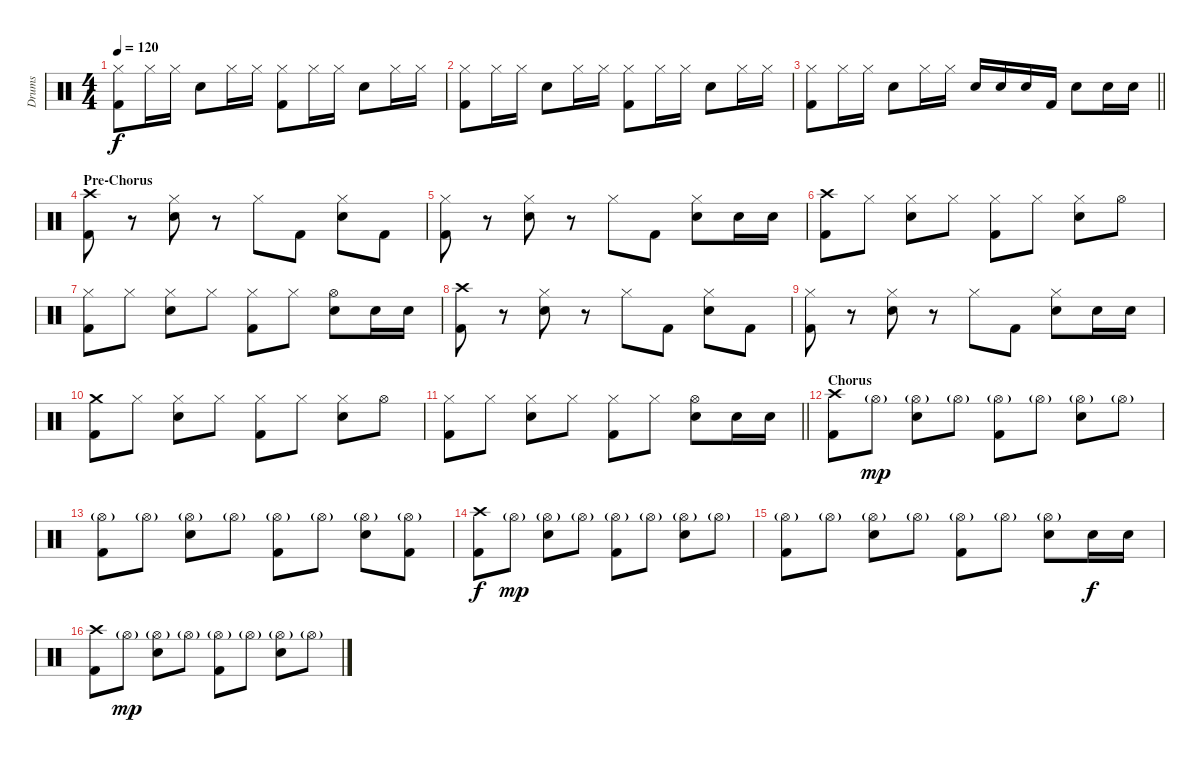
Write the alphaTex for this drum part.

\track ("Drums" "Drums") {instrument percussion}
\staff {score}
\articulation defaults
\ts (4 4)
\tempo 120
\clef neutral
\ks c
("Hi-Hat (closed)" "Kick (hit) 2").8{dy f} "Hi-Hat (closed)".16 "Hi-Hat (closed)".16 "Electric Snare (hit)".8 "Hi-Hat (closed)".16 "Hi-Hat (closed)".16 ("Hi-Hat (closed)" "Kick (hit) 2").8 "Hi-Hat (closed)".16 "Hi-Hat (closed)".16 "Electric Snare (hit)".8 "Hi-Hat (closed)".16 "Hi-Hat (closed)".16 |
("Hi-Hat (closed)" "Kick (hit) 2").8 "Hi-Hat (closed)".16 "Hi-Hat (closed)".16 "Electric Snare (hit)".8 "Hi-Hat (closed)".16 "Hi-Hat (closed)".16 ("Hi-Hat (closed)" "Kick (hit) 2").8 "Hi-Hat (closed)".16 "Hi-Hat (closed)".16 "Electric Snare (hit)".8 "Hi-Hat (closed)".16 "Hi-Hat (closed)".16 |
\barLineRight lightlight
("Hi-Hat (closed)" "Kick (hit) 2").8 "Hi-Hat (closed)".16 "Hi-Hat (closed)".16 "Electric Snare (hit)".8 "Hi-Hat (closed)".16 "Hi-Hat (closed)".16 "Electric Snare (hit)".16 "Electric Snare (hit)".16 "Electric Snare (hit)".16 "Kick (hit) 2".16 "Electric Snare (hit)".8 "Electric Snare (hit)".16 "Electric Snare (hit)".16 |
\section ("" "Pre-Chorus")
("Crash high (hit)" "Kick (hit) 2").8 r.8 ("Hi-Hat (closed)" "Electric Snare (hit)").8 r.8 "Hi-Hat (closed)".8 "Kick (hit) 2".8 ("Hi-Hat (closed)" "Electric Snare (hit)").8 "Kick (hit) 2".8 |
("Hi-Hat (closed)" "Kick (hit) 2").8 r.8 ("Hi-Hat (closed)" "Electric Snare (hit)").8 r.8 "Hi-Hat (closed)".8 "Kick (hit) 2".8 ("Hi-Hat (closed)" "Electric Snare (hit)").8 "Electric Snare (hit)".16 "Electric Snare (hit)".16 |
("Crash high (hit)" "Kick (hit) 2").8 "Hi-Hat (closed)".8 ("Hi-Hat (closed)" "Electric Snare (hit)").8 "Hi-Hat (closed)".8 ("Hi-Hat (closed)" "Kick (hit) 2").8 "Hi-Hat (closed)".8 ("Hi-Hat (closed)" "Electric Snare (hit)").8 "Hi-Hat (open)".8 |
("Hi-Hat (closed)" "Kick (hit) 2").8 "Hi-Hat (closed)".8 ("Hi-Hat (closed)" "Electric Snare (hit)").8 "Hi-Hat (closed)".8 ("Hi-Hat (closed)" "Kick (hit) 2").8 "Hi-Hat (closed)".8 ("Hi-Hat (open)" "Electric Snare (hit)").8 "Electric Snare (hit)".16 "Electric Snare (hit)".16 |
("Crash high (hit)" "Kick (hit) 2").8 r.8 ("Hi-Hat (closed)" "Electric Snare (hit)").8 r.8 "Hi-Hat (closed)".8 "Kick (hit) 2".8 ("Hi-Hat (closed)" "Electric Snare (hit)").8 "Kick (hit) 2".8 |
("Hi-Hat (closed)" "Kick (hit) 2").8 r.8 ("Hi-Hat (closed)" "Electric Snare (hit)").8 r.8 "Hi-Hat (closed)".8 "Kick (hit) 2".8 ("Hi-Hat (closed)" "Electric Snare (hit)").8 "Electric Snare (hit)".16 "Electric Snare (hit)".16 |
("Crash medium (hit)" "Kick (hit) 2").8 "Hi-Hat (closed)".8 ("Hi-Hat (closed)" "Electric Snare (hit)").8 "Hi-Hat (closed)".8 ("Hi-Hat (closed)" "Kick (hit) 2").8 "Hi-Hat (closed)".8 ("Hi-Hat (closed)" "Electric Snare (hit)").8 "Hi-Hat (open)".8 |
\barLineRight lightlight
("Hi-Hat (closed)" "Kick (hit) 2").8 "Hi-Hat (closed)".8 ("Hi-Hat (closed)" "Electric Snare (hit)").8 "Hi-Hat (closed)".8 ("Hi-Hat (closed)" "Kick (hit) 2").8 "Hi-Hat (closed)".8 ("Hi-Hat (open)" "Electric Snare (hit)").8 "Electric Snare (hit)".16 "Electric Snare (hit)".16 |
\section ("" "Chorus")
("Crash high (hit)" "Kick (hit) 2").8 "Hi-Hat (open)"{g}.8{dy mp} ("Hi-Hat (open)"{g} "Electric Snare (hit)").8 "Hi-Hat (open)"{g}.8 ("Hi-Hat (open)"{g} "Kick (hit) 2").8 "Hi-Hat (open)"{g}.8 ("Hi-Hat (open)"{g} "Electric Snare (hit)").8 "Hi-Hat (open)"{g}.8 |
("Hi-Hat (open)"{g} "Kick (hit) 2").8 "Hi-Hat (open)"{g}.8 ("Hi-Hat (open)"{g} "Electric Snare (hit)").8 "Hi-Hat (open)"{g}.8 ("Hi-Hat (open)"{g} "Kick (hit) 2").8 "Hi-Hat (open)"{g}.8 ("Hi-Hat (open)"{g} "Electric Snare (hit)").8 ("Hi-Hat (open)"{g} "Kick (hit) 2").8 |
("Crash high (hit)" "Kick (hit) 2").8{dy f} "Hi-Hat (open)"{g}.8{dy mp} ("Hi-Hat (open)"{g} "Electric Snare (hit)").8 "Hi-Hat (open)"{g}.8 ("Hi-Hat (open)"{g} "Kick (hit) 2").8 "Hi-Hat (open)"{g}.8 ("Hi-Hat (open)"{g} "Electric Snare (hit)").8 "Hi-Hat (open)"{g}.8 |
("Hi-Hat (open)"{g} "Kick (hit) 2").8 "Hi-Hat (open)"{g}.8 ("Hi-Hat (open)"{g} "Electric Snare (hit)").8 "Hi-Hat (open)"{g}.8 ("Hi-Hat (open)"{g} "Kick (hit) 2").8 "Hi-Hat (open)"{g}.8 ("Hi-Hat (open)"{g} "Electric Snare (hit)").8 "Electric Snare (hit)".16{dy f} "Electric Snare (hit)".16 |
("Crash high (hit)" "Kick (hit) 2").8 "Hi-Hat (open)"{g}.8{dy mp} ("Hi-Hat (open)"{g} "Electric Snare (hit)").8 "Hi-Hat (open)"{g}.8 ("Hi-Hat (open)"{g} "Kick (hit) 2").8 "Hi-Hat (open)"{g}.8 ("Hi-Hat (open)"{g} "Electric Snare (hit)").8 "Hi-Hat (open)"{g}.8
